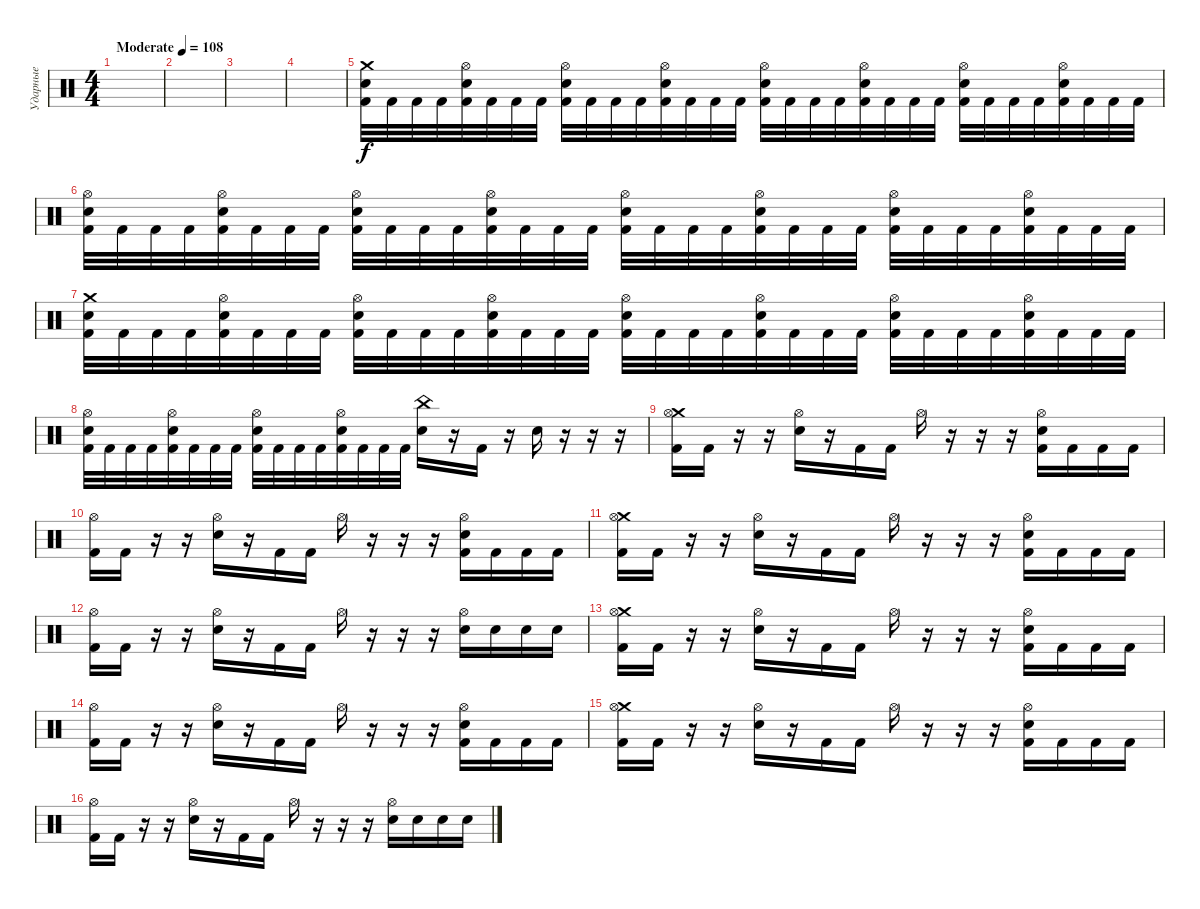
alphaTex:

\track ("Ударные" "Ударные") {instrument percussion}
\staff {score}
\articulation defaults
\ts (4 4)
\tempo (108 "Moderate")
\clef neutral
\ks c
|
|
|
|
("Crash medium (hit)" "Electric Snare (hit)" "Kick (hit) 2").32 "Kick (hit) 2".32 "Kick (hit) 2".32 "Kick (hit) 2".32 ("Hi-Hat (open)" "Electric Snare (hit)" "Kick (hit) 2").32 "Kick (hit) 2".32 "Kick (hit) 2".32 "Kick (hit) 2".32 ("Electric Snare (hit)" "Hi-Hat (open)" "Kick (hit) 2").32 "Kick (hit) 2".32 "Kick (hit) 2".32 "Kick (hit) 2".32 ("Hi-Hat (open)" "Electric Snare (hit)" "Kick (hit) 2").32 "Kick (hit) 2".32 "Kick (hit) 2".32 "Kick (hit) 2".32 ("Hi-Hat (open)" "Electric Snare (hit)" "Kick (hit) 2").32 "Kick (hit) 2".32 "Kick (hit) 2".32 "Kick (hit) 2".32 ("Hi-Hat (open)" "Electric Snare (hit)" "Kick (hit) 2").32 "Kick (hit) 2".32 "Kick (hit) 2".32 "Kick (hit) 2".32 ("Electric Snare (hit)" "Hi-Hat (open)" "Kick (hit) 2").32 "Kick (hit) 2".32 "Kick (hit) 2".32 "Kick (hit) 2".32 ("Hi-Hat (open)" "Electric Snare (hit)" "Kick (hit) 2").32 "Kick (hit) 2".32 "Kick (hit) 2".32 "Kick (hit) 2".32 |
("Hi-Hat (open)" "Electric Snare (hit)" "Kick (hit) 2").32 "Kick (hit) 2".32 "Kick (hit) 2".32 "Kick (hit) 2".32 ("Hi-Hat (open)" "Electric Snare (hit)" "Kick (hit) 2").32 "Kick (hit) 2".32 "Kick (hit) 2".32 "Kick (hit) 2".32 ("Electric Snare (hit)" "Hi-Hat (open)" "Kick (hit) 2").32 "Kick (hit) 2".32 "Kick (hit) 2".32 "Kick (hit) 2".32 ("Hi-Hat (open)" "Electric Snare (hit)" "Kick (hit) 2").32 "Kick (hit) 2".32 "Kick (hit) 2".32 "Kick (hit) 2".32 ("Hi-Hat (open)" "Electric Snare (hit)" "Kick (hit) 2").32 "Kick (hit) 2".32 "Kick (hit) 2".32 "Kick (hit) 2".32 ("Hi-Hat (open)" "Electric Snare (hit)" "Kick (hit) 2").32 "Kick (hit) 2".32 "Kick (hit) 2".32 "Kick (hit) 2".32 ("Electric Snare (hit)" "Hi-Hat (open)" "Kick (hit) 2").32 "Kick (hit) 2".32 "Kick (hit) 2".32 "Kick (hit) 2".32 ("Hi-Hat (open)" "Electric Snare (hit)" "Kick (hit) 2").32 "Kick (hit) 2".32 "Kick (hit) 2".32 "Kick (hit) 2".32 |
("Crash medium (hit)" "Electric Snare (hit)" "Kick (hit) 2").32 "Kick (hit) 2".32 "Kick (hit) 2".32 "Kick (hit) 2".32 ("Hi-Hat (open)" "Electric Snare (hit)" "Kick (hit) 2").32 "Kick (hit) 2".32 "Kick (hit) 2".32 "Kick (hit) 2".32 ("Electric Snare (hit)" "Hi-Hat (open)" "Kick (hit) 2").32 "Kick (hit) 2".32 "Kick (hit) 2".32 "Kick (hit) 2".32 ("Hi-Hat (open)" "Electric Snare (hit)" "Kick (hit) 2").32 "Kick (hit) 2".32 "Kick (hit) 2".32 "Kick (hit) 2".32 ("Hi-Hat (open)" "Electric Snare (hit)" "Kick (hit) 2").32 "Kick (hit) 2".32 "Kick (hit) 2".32 "Kick (hit) 2".32 ("Hi-Hat (open)" "Electric Snare (hit)" "Kick (hit) 2").32 "Kick (hit) 2".32 "Kick (hit) 2".32 "Kick (hit) 2".32 ("Electric Snare (hit)" "Hi-Hat (open)" "Kick (hit) 2").32 "Kick (hit) 2".32 "Kick (hit) 2".32 "Kick (hit) 2".32 ("Hi-Hat (open)" "Electric Snare (hit)" "Kick (hit) 2").32 "Kick (hit) 2".32 "Kick (hit) 2".32 "Kick (hit) 2".32 |
("Hi-Hat (open)" "Electric Snare (hit)" "Kick (hit) 2").32 "Kick (hit) 2".32 "Kick (hit) 2".32 "Kick (hit) 2".32 ("Hi-Hat (open)" "Electric Snare (hit)" "Kick (hit) 2").32 "Kick (hit) 2".32 "Kick (hit) 2".32 "Kick (hit) 2".32 ("Electric Snare (hit)" "Hi-Hat (open)" "Kick (hit) 2").32 "Kick (hit) 2".32 "Kick (hit) 2".32 "Kick (hit) 2".32 ("Hi-Hat (open)" "Electric Snare (hit)" "Kick (hit) 2").32 "Kick (hit) 2".32 "Kick (hit) 2".32 "Kick (hit) 2".32 ("Electric Snare (hit)" "China (hit)").16 r.16 "Kick (hit) 2".16 r.16 "Electric Snare (hit)".16 r.16 r.16 r.16 |
("Crash medium (hit)" "Hi-Hat (open)" "Kick (hit) 2").16 "Kick (hit) 2".16 r.16 r.16 ("Hi-Hat (open)" "Electric Snare (hit)").16 r.16 "Kick (hit) 2".16 "Kick (hit) 2".16 "Hi-Hat (open)".16 r.16 r.16 r.16 ("Hi-Hat (open)" "Electric Snare (hit)" "Kick (hit) 2").16 "Kick (hit) 2".16 "Kick (hit) 2".16 "Kick (hit) 2".16 |
("Hi-Hat (open)" "Kick (hit) 2").16 "Kick (hit) 2".16 r.16 r.16 ("Hi-Hat (open)" "Electric Snare (hit)").16 r.16 "Kick (hit) 2".16 "Kick (hit) 2".16 "Hi-Hat (open)".16 r.16 r.16 r.16 ("Hi-Hat (open)" "Electric Snare (hit)" "Kick (hit) 2").16 "Kick (hit) 2".16 "Kick (hit) 2".16 "Kick (hit) 2".16 |
("Crash medium (hit)" "Hi-Hat (open)" "Kick (hit) 2").16 "Kick (hit) 2".16 r.16 r.16 ("Hi-Hat (open)" "Electric Snare (hit)").16 r.16 "Kick (hit) 2".16 "Kick (hit) 2".16 "Hi-Hat (open)".16 r.16 r.16 r.16 ("Hi-Hat (open)" "Electric Snare (hit)" "Kick (hit) 2").16 "Kick (hit) 2".16 "Kick (hit) 2".16 "Kick (hit) 2".16 |
("Hi-Hat (open)" "Kick (hit) 2").16 "Kick (hit) 2".16 r.16 r.16 ("Hi-Hat (open)" "Electric Snare (hit)").16 r.16 "Kick (hit) 2".16 "Kick (hit) 2".16 "Hi-Hat (open)".16 r.16 r.16 r.16 ("Hi-Hat (open)" "Electric Snare (hit)").16 "Electric Snare (hit)".16 "Electric Snare (hit)".16 "Electric Snare (hit)".16 |
("Crash medium (hit)" "Hi-Hat (open)" "Kick (hit) 2").16 "Kick (hit) 2".16 r.16 r.16 ("Hi-Hat (open)" "Electric Snare (hit)").16 r.16 "Kick (hit) 2".16 "Kick (hit) 2".16 "Hi-Hat (open)".16 r.16 r.16 r.16 ("Hi-Hat (open)" "Electric Snare (hit)" "Kick (hit) 2").16 "Kick (hit) 2".16 "Kick (hit) 2".16 "Kick (hit) 2".16 |
("Hi-Hat (open)" "Kick (hit) 2").16 "Kick (hit) 2".16 r.16 r.16 ("Hi-Hat (open)" "Electric Snare (hit)").16 r.16 "Kick (hit) 2".16 "Kick (hit) 2".16 "Hi-Hat (open)".16 r.16 r.16 r.16 ("Hi-Hat (open)" "Electric Snare (hit)" "Kick (hit) 2").16 "Kick (hit) 2".16 "Kick (hit) 2".16 "Kick (hit) 2".16 |
("Crash medium (hit)" "Hi-Hat (open)" "Kick (hit) 2").16 "Kick (hit) 2".16 r.16 r.16 ("Hi-Hat (open)" "Electric Snare (hit)").16 r.16 "Kick (hit) 2".16 "Kick (hit) 2".16 "Hi-Hat (open)".16 r.16 r.16 r.16 ("Hi-Hat (open)" "Electric Snare (hit)" "Kick (hit) 2").16 "Kick (hit) 2".16 "Kick (hit) 2".16 "Kick (hit) 2".16 |
("Hi-Hat (open)" "Kick (hit) 2").16 "Kick (hit) 2".16 r.16 r.16 ("Hi-Hat (open)" "Electric Snare (hit)").16 r.16 "Kick (hit) 2".16 "Kick (hit) 2".16 "Hi-Hat (open)".16 r.16 r.16 r.16 ("Hi-Hat (open)" "Electric Snare (hit)").16 "Electric Snare (hit)".16 "Electric Snare (hit)".16 "Electric Snare (hit)".16
